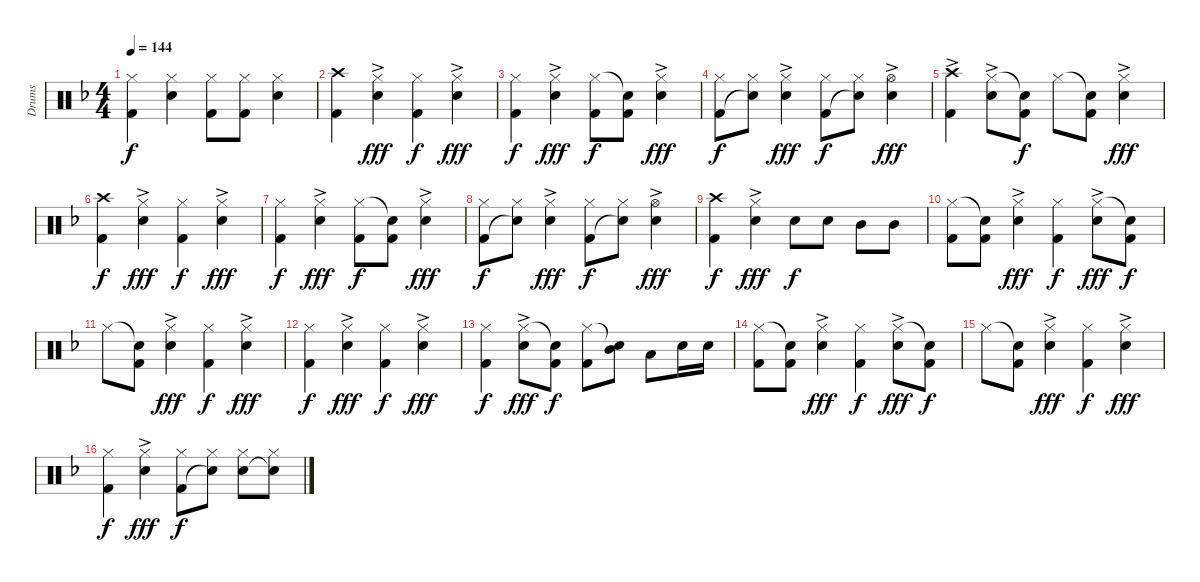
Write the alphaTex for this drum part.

\track ("Drums" "Drums") {instrument percussion}
\staff {score}
\articulation defaults
\ts (4 4)
\tempo 144
\clef neutral
\ks dminor
("Hi-Hat (closed)" "Kick (hit) 2").4{dy f} ("Hi-Hat (closed)" "Snare (hit) 2").4 ("Hi-Hat (closed)" "Kick (hit) 2").8 ("Hi-Hat (closed)" "Kick (hit) 2").8 ("Hi-Hat (closed)" "Snare (hit) 2").4 |
("Crash high (hit)" "Kick (hit) 2").4 ("Hi-Hat (closed)"{ac} "Snare (hit) 2").4{dy fff} ("Hi-Hat (closed)" "Kick (hit) 2").4{dy f} ("Hi-Hat (closed)"{ac} "Snare (hit) 2").4{dy fff} |
("Hi-Hat (closed)" "Kick (hit) 2").4{dy f} ("Hi-Hat (closed)"{ac} "Snare (hit) 2").4{dy fff} ("Hi-Hat (closed)" "Kick (hit) 2").8{dy f} ("Snare (hit)"{t} "Kick (hit) 2").8 ("Hi-Hat (closed)"{ac} "Snare (hit) 2").4{dy fff} |
("Hi-Hat (closed)" "Kick (hit) 2").8{dy f} ("Hi-Hat (closed)" "Snare (hit)"{t}).8 ("Hi-Hat (closed)"{ac} "Snare (hit) 2").4{dy fff} ("Hi-Hat (closed)" "Kick (hit) 2").8{dy f} ("Hi-Hat (closed)" "Snare (hit)"{t}).8 ("Hi-Hat (open)"{ac} "Snare (hit) 2").4{dy fff} |
("Crash high (hit)"{ac} "Kick (hit) 2").4 ("Hi-Hat (closed)"{ac} "Snare (hit) 2").8 ("Snare (hit)"{t} "Kick (hit) 2").8{dy f} "Hi-Hat (closed)".8 ("Snare (hit)"{t} "Kick (hit) 2").8 ("Hi-Hat (closed)"{ac} "Snare (hit) 2").4{dy fff} |
("Crash high (hit)" "Kick (hit) 2").4{dy f} ("Hi-Hat (closed)"{ac} "Snare (hit) 2").4{dy fff} ("Hi-Hat (closed)" "Kick (hit) 2").4{dy f} ("Hi-Hat (closed)"{ac} "Snare (hit) 2").4{dy fff} |
("Hi-Hat (closed)" "Kick (hit) 2").4{dy f} ("Hi-Hat (closed)"{ac} "Snare (hit) 2").4{dy fff} ("Hi-Hat (closed)" "Kick (hit) 2").8{dy f} ("Snare (hit)"{t} "Kick (hit) 2").8 ("Hi-Hat (closed)"{ac} "Snare (hit) 2").4{dy fff} |
("Hi-Hat (closed)" "Kick (hit) 2").8{dy f} ("Hi-Hat (closed)" "Snare (hit)"{t}).8 ("Hi-Hat (closed)"{ac} "Snare (hit) 2").4{dy fff} ("Hi-Hat (closed)" "Kick (hit) 2").8{dy f} ("Hi-Hat (closed)" "Snare (hit)"{t}).8 ("Hi-Hat (open)"{ac} "Snare (hit) 2").4{dy fff} |
("Crash high (hit)" "Kick (hit) 2").4{dy f} ("Hi-Hat (closed)"{ac} "Snare (hit) 2").4{dy fff} "Snare (hit) 2".8{dy f} "Snare (hit) 2".8 "Mid Tom (hit)".8 "Mid Tom (hit)".8 |
("Hi-Hat (closed)" "Kick (hit) 2").8 ("Snare (hit)"{t} "Kick (hit) 2").8 ("Hi-Hat (closed)"{ac} "Snare (hit) 2").4{dy fff} ("Hi-Hat (closed)" "Kick (hit) 2").4{dy f} ("Hi-Hat (closed)"{ac} "Snare (hit) 2").8{dy fff} ("Snare (hit)"{t} "Kick (hit) 2").8{dy f} |
"Hi-Hat (closed)".8 ("Snare (hit)"{t} "Kick (hit) 2").8 ("Hi-Hat (closed)"{ac} "Snare (hit) 2").4{dy fff} ("Hi-Hat (closed)" "Kick (hit) 2").4{dy f} ("Hi-Hat (closed)"{ac} "Snare (hit) 2").4{dy fff} |
("Hi-Hat (closed)" "Kick (hit) 2").4{dy f} ("Hi-Hat (closed)"{ac} "Snare (hit) 2").4{dy fff} ("Hi-Hat (closed)" "Kick (hit) 2").4{dy f} ("Hi-Hat (closed)"{ac} "Snare (hit) 2").4{dy fff} |
("Hi-Hat (closed)" "Kick (hit) 2").4{dy f} ("Hi-Hat (closed)"{ac} "Snare (hit) 2").8{dy fff} ("Snare (hit)"{t} "Kick (hit) 2").8{dy f} ("Hi-Hat (closed)" "Kick (hit) 2").8 ("Snare (hit)"{t} "Mid Tom (hit)").8 "Low Floor Tom (hit)".8 "Snare (hit) 2".16 "Snare (hit) 2".16 |
("Hi-Hat (closed)" "Kick (hit) 2").8 ("Snare (hit)"{t} "Kick (hit) 2").8 ("Hi-Hat (closed)"{ac} "Snare (hit) 2").4{dy fff} ("Hi-Hat (closed)" "Kick (hit) 2").4{dy f} ("Hi-Hat (closed)"{ac} "Snare (hit) 2").8{dy fff} ("Snare (hit)"{t} "Kick (hit) 2").8{dy f} |
"Hi-Hat (closed)".8 ("Snare (hit)"{t} "Kick (hit) 2").8 ("Hi-Hat (closed)"{ac} "Snare (hit) 2").4{dy fff} ("Hi-Hat (closed)" "Kick (hit) 2").4{dy f} ("Hi-Hat (closed)"{ac} "Snare (hit) 2").4{dy fff} |
("Hi-Hat (closed)" "Kick (hit) 2").4{dy f} ("Hi-Hat (closed)"{ac} "Snare (hit) 2").4{dy fff} ("Hi-Hat (closed)" "Kick (hit) 2").8{dy f} ("Hi-Hat (closed)" "Snare (hit)"{t}).8 ("Hi-Hat (closed)" "Snare (hit) 2").8 ("Hi-Hat (closed)" "Snare (hit)"{t}).8
